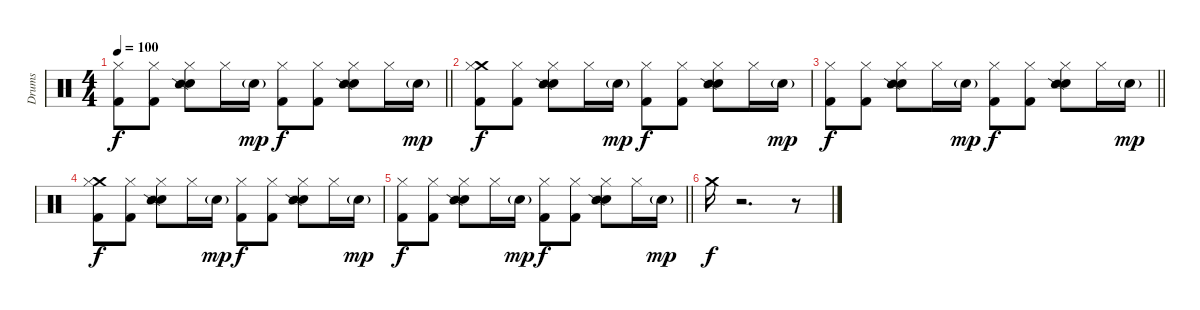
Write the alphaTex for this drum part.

\track ("Drums" "Drums") {instrument percussion}
\staff {score}
\articulation defaults
\ts (4 4)
\tempo 100
\clef neutral
\barLineRight lightlight
\ks c
("Hi-Hat (closed)" "Kick (hit) 2").8{dy f} ("Hi-Hat (closed)" "Kick (hit) 2").8 ("Hi-Hat (closed)" "Electric Snare (hit)" "Snare (side stick) 2").8 "Hi-Hat (closed)".16 "Electric Snare (hit)"{g}.16{dy mp} ("Hi-Hat (closed)" "Kick (hit) 2").8{dy f} ("Hi-Hat (closed)" "Kick (hit) 2").8 ("Hi-Hat (closed)" "Electric Snare (hit)" "Snare (side stick) 2").8 "Hi-Hat (closed)".16 "Electric Snare (hit)"{g}.16{dy mp} |
("Crash medium (hit)" "Hi-Hat (closed)" "Kick (hit) 2").8{dy f} ("Hi-Hat (closed)" "Kick (hit) 2").8 ("Hi-Hat (closed)" "Electric Snare (hit)" "Snare (side stick) 2").8 "Hi-Hat (closed)".16 "Electric Snare (hit)"{g}.16{dy mp} ("Hi-Hat (closed)" "Kick (hit) 2").8{dy f} ("Hi-Hat (closed)" "Kick (hit) 2").8 ("Hi-Hat (closed)" "Electric Snare (hit)" "Snare (side stick) 2").8 "Hi-Hat (closed)".16 "Electric Snare (hit)"{g}.16{dy mp} |
\barLineRight lightlight
("Hi-Hat (closed)" "Kick (hit) 2").8{dy f} ("Hi-Hat (closed)" "Kick (hit) 2").8 ("Hi-Hat (closed)" "Electric Snare (hit)" "Snare (side stick) 2").8 "Hi-Hat (closed)".16 "Electric Snare (hit)"{g}.16{dy mp} ("Hi-Hat (closed)" "Kick (hit) 2").8{dy f} ("Hi-Hat (closed)" "Kick (hit) 2").8 ("Hi-Hat (closed)" "Electric Snare (hit)" "Snare (side stick) 2").8 "Hi-Hat (closed)".16 "Electric Snare (hit)"{g}.16{dy mp} |
("Crash medium (hit)" "Hi-Hat (closed)" "Kick (hit) 2").8{dy f} ("Hi-Hat (closed)" "Kick (hit) 2").8 ("Hi-Hat (closed)" "Electric Snare (hit)" "Snare (side stick) 2").8 "Hi-Hat (closed)".16 "Electric Snare (hit)"{g}.16{dy mp} ("Hi-Hat (closed)" "Kick (hit) 2").8{dy f} ("Hi-Hat (closed)" "Kick (hit) 2").8 ("Hi-Hat (closed)" "Electric Snare (hit)" "Snare (side stick) 2").8 "Hi-Hat (closed)".16 "Electric Snare (hit)"{g}.16{dy mp} |
\barLineRight lightlight
("Hi-Hat (closed)" "Kick (hit) 2").8{dy f} ("Hi-Hat (closed)" "Kick (hit) 2").8 ("Hi-Hat (closed)" "Electric Snare (hit)" "Snare (side stick) 2").8 "Hi-Hat (closed)".16 "Electric Snare (hit)"{g}.16{dy mp} ("Hi-Hat (closed)" "Kick (hit) 2").8{dy f} ("Hi-Hat (closed)" "Kick (hit) 2").8 ("Hi-Hat (closed)" "Electric Snare (hit)" "Snare (side stick) 2").8 "Hi-Hat (closed)".16 "Electric Snare (hit)"{g}.16{dy mp} |
"Crash medium (hit)".16{dy f} r.2{d} r.8
